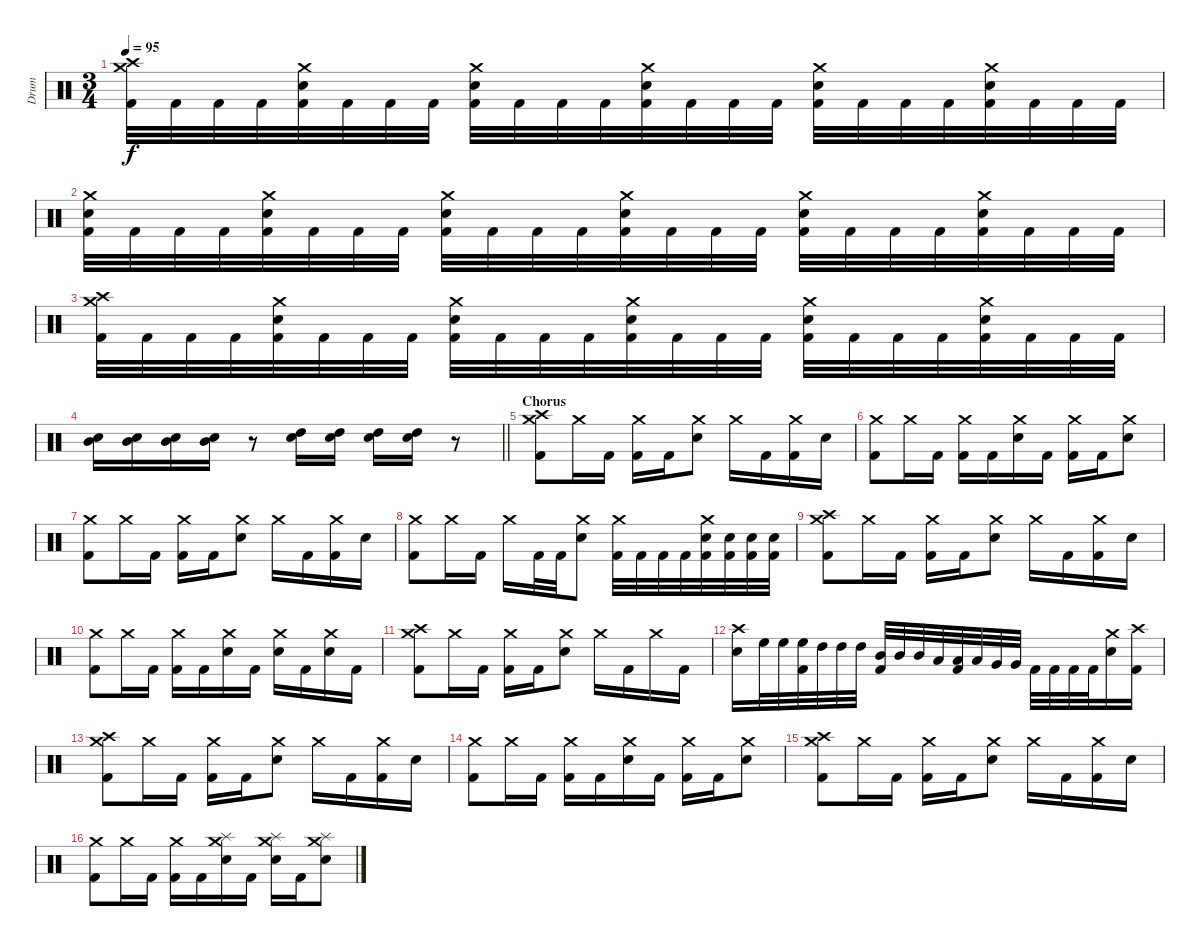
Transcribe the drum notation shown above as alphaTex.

\track ("Drum" "Drum") {instrument percussion}
\staff {score}
\articulation defaults
\ts (3 4)
\tempo 95
\clef neutral
\ks c
("Crash medium (hit)" "Crash high (hit)" "Kick (hit) 2").32{dy f} "Kick (hit) 2".32 "Kick (hit) 2".32 "Kick (hit) 2".32 ("Crash medium (hit)" "Electric Snare (hit)" "Kick (hit) 2").32 "Kick (hit) 2".32 "Kick (hit) 2".32 "Kick (hit) 2".32 ("Crash medium (hit)" "Electric Snare (hit)" "Kick (hit) 2").32 "Kick (hit) 2".32 "Kick (hit) 2".32 "Kick (hit) 2".32 ("Crash medium (hit)" "Electric Snare (hit)" "Kick (hit) 2").32 "Kick (hit) 2".32 "Kick (hit) 2".32 "Kick (hit) 2".32 ("Crash medium (hit)" "Electric Snare (hit)" "Kick (hit) 2").32 "Kick (hit) 2".32 "Kick (hit) 2".32 "Kick (hit) 2".32 ("Crash medium (hit)" "Electric Snare (hit)" "Kick (hit) 2").32 "Kick (hit) 2".32 "Kick (hit) 2".32 "Kick (hit) 2".32 |
("Crash medium (hit)" "Electric Snare (hit)" "Kick (hit) 2").32 "Kick (hit) 2".32 "Kick (hit) 2".32 "Kick (hit) 2".32 ("Crash medium (hit)" "Electric Snare (hit)" "Kick (hit) 2").32 "Kick (hit) 2".32 "Kick (hit) 2".32 "Kick (hit) 2".32 ("Crash medium (hit)" "Electric Snare (hit)" "Kick (hit) 2").32 "Kick (hit) 2".32 "Kick (hit) 2".32 "Kick (hit) 2".32 ("Crash medium (hit)" "Electric Snare (hit)" "Kick (hit) 2").32 "Kick (hit) 2".32 "Kick (hit) 2".32 "Kick (hit) 2".32 ("Crash medium (hit)" "Electric Snare (hit)" "Kick (hit) 2").32 "Kick (hit) 2".32 "Kick (hit) 2".32 "Kick (hit) 2".32 ("Crash medium (hit)" "Electric Snare (hit)" "Kick (hit) 2").32 "Kick (hit) 2".32 "Kick (hit) 2".32 "Kick (hit) 2".32 |
("Crash medium (hit)" "Crash high (hit)" "Kick (hit) 2").32 "Kick (hit) 2".32 "Kick (hit) 2".32 "Kick (hit) 2".32 ("Crash medium (hit)" "Electric Snare (hit)" "Kick (hit) 2").32 "Kick (hit) 2".32 "Kick (hit) 2".32 "Kick (hit) 2".32 ("Crash medium (hit)" "Electric Snare (hit)" "Kick (hit) 2").32 "Kick (hit) 2".32 "Kick (hit) 2".32 "Kick (hit) 2".32 ("Crash medium (hit)" "Electric Snare (hit)" "Kick (hit) 2").32 "Kick (hit) 2".32 "Kick (hit) 2".32 "Kick (hit) 2".32 ("Crash medium (hit)" "Electric Snare (hit)" "Kick (hit) 2").32 "Kick (hit) 2".32 "Kick (hit) 2".32 "Kick (hit) 2".32 ("Crash medium (hit)" "Electric Snare (hit)" "Kick (hit) 2").32 "Kick (hit) 2".32 "Kick (hit) 2".32 "Kick (hit) 2".32 |
\barLineRight lightlight
("Electric Snare (hit)" "Mid Tom (hit)").16 ("Electric Snare (hit)" "Mid Tom (hit)").16 ("Electric Snare (hit)" "Mid Tom (hit)").16 ("Electric Snare (hit)" "Mid Tom (hit)").16 r.8 ("Electric Snare (hit)" "High Tom (hit)").16 ("Electric Snare (hit)" "High Tom (hit)").16 ("Electric Snare (hit)" "High Tom (hit)").16 ("Electric Snare (hit)" "High Tom (hit)").16 r.8 |
\section ("" "Chorus")
("Crash medium (hit)" "Crash high (hit)" "Kick (hit) 2").8 "Crash medium (hit)".16 "Kick (hit) 2".16 ("Crash medium (hit)" "Kick (hit) 2").16 "Kick (hit) 2".16 ("Crash medium (hit)" "Electric Snare (hit)").8 "Crash medium (hit)".16 "Kick (hit) 2".16 ("Crash medium (hit)" "Kick (hit) 2").16 "Electric Snare (hit)".16 |
("Crash medium (hit)" "Kick (hit) 2").8 "Crash medium (hit)".16 "Kick (hit) 2".16 ("Crash medium (hit)" "Kick (hit) 2").16 "Kick (hit) 2".16 ("Crash medium (hit)" "Electric Snare (hit)").16 "Kick (hit) 2".16 ("Crash medium (hit)" "Kick (hit) 2").16 "Kick (hit) 2".16 ("Crash medium (hit)" "Electric Snare (hit)").8 |
("Crash medium (hit)" "Kick (hit) 2").8 "Crash medium (hit)".16 "Kick (hit) 2".16 ("Crash medium (hit)" "Kick (hit) 2").16 "Kick (hit) 2".16 ("Crash medium (hit)" "Electric Snare (hit)").8 "Crash medium (hit)".16 "Kick (hit) 2".16 ("Crash medium (hit)" "Kick (hit) 2").16 "Electric Snare (hit)".16 |
("Crash medium (hit)" "Kick (hit) 2").8 "Crash medium (hit)".16 "Kick (hit) 2".16 "Crash medium (hit)".16 "Kick (hit) 2".32 "Kick (hit) 2".32 ("Crash medium (hit)" "Electric Snare (hit)").8 ("Crash medium (hit)" "Kick (hit) 2").32 "Kick (hit) 2".32 "Kick (hit) 2".32 "Kick (hit) 2".32 ("Crash medium (hit)" "Electric Snare (hit)" "Kick (hit) 2").32 ("Electric Snare (hit)" "Kick (hit) 2").32 ("Electric Snare (hit)" "Kick (hit) 2").32 ("Electric Snare (hit)" "Kick (hit) 2").32 |
("Crash medium (hit)" "Crash high (hit)" "Kick (hit) 2").8 "Crash medium (hit)".16 "Kick (hit) 2".16 ("Crash medium (hit)" "Kick (hit) 2").16 "Kick (hit) 2".16 ("Crash medium (hit)" "Electric Snare (hit)").8 "Crash medium (hit)".16 "Kick (hit) 2".16 ("Crash medium (hit)" "Kick (hit) 2").16 "Electric Snare (hit)".16 |
("Crash medium (hit)" "Kick (hit) 2").8 "Crash medium (hit)".16 "Kick (hit) 2".16 ("Crash medium (hit)" "Kick (hit) 2").16 "Kick (hit) 2".16 ("Crash medium (hit)" "Electric Snare (hit)").16 "Kick (hit) 2".16 ("Crash medium (hit)" "Electric Snare (hit)").16 "Kick (hit) 2".16 ("Crash medium (hit)" "Electric Snare (hit)").16 "Kick (hit) 2".16 |
("Crash high (hit)" "Crash medium (hit)" "Kick (hit) 2").8 "Crash medium (hit)".16 "Kick (hit) 2".16 ("Crash medium (hit)" "Kick (hit) 2").16 "Kick (hit) 2".16 ("Crash medium (hit)" "Electric Snare (hit)").8 "Crash medium (hit)".16 "Kick (hit) 2".16 "Crash medium (hit)".16 "Kick (hit) 2".16 |
("Crash high (hit)" "Electric Snare (hit)").16 "High Floor Tom (hit)".32 "High Floor Tom (hit)".32 ("High Floor Tom (hit)" "Kick (hit) 2").32 "High Tom (hit)".32 "High Tom (hit)".32 "High Tom (hit)".32 ("Mid Tom (hit)" "Kick (hit) 2").32 "Mid Tom (hit)".32 "Mid Tom (hit)".32 "Low Tom (hit)".32 ("Low Tom (hit)" "Kick (hit) 2").32 "Low Tom (hit)".32 "Very Low Tom (hit)".32 "Very Low Tom (hit)".32 "Kick (hit) 2".32 "Kick (hit) 2".32 "Kick (hit) 2".32 "Kick (hit) 2".32 ("Crash medium (hit)" "Electric Snare (hit)").16 ("Crash high (hit)" "Kick (hit) 2").16 |
("Crash medium (hit)" "Crash high (hit)" "Kick (hit) 2").8 "Crash medium (hit)".16 "Kick (hit) 2".16 ("Crash medium (hit)" "Kick (hit) 2").16 "Kick (hit) 2".16 ("Crash medium (hit)" "Electric Snare (hit)").8 "Crash medium (hit)".16 "Kick (hit) 2".16 ("Crash medium (hit)" "Kick (hit) 2").16 "Electric Snare (hit)".16 |
("Crash medium (hit)" "Kick (hit) 2").8 "Crash medium (hit)".16 "Kick (hit) 2".16 ("Crash medium (hit)" "Kick (hit) 2").16 "Kick (hit) 2".16 ("Crash medium (hit)" "Electric Snare (hit)").16 "Kick (hit) 2".16 ("Crash medium (hit)" "Kick (hit) 2").16 "Kick (hit) 2".16 ("Crash medium (hit)" "Electric Snare (hit)").8 |
("Crash high (hit)" "Crash medium (hit)" "Kick (hit) 2").8 "Crash medium (hit)".16 "Kick (hit) 2".16 ("Crash medium (hit)" "Kick (hit) 2").16 "Kick (hit) 2".16 ("Crash medium (hit)" "Electric Snare (hit)").8 "Crash medium (hit)".16 "Kick (hit) 2".16 ("Crash medium (hit)" "Kick (hit) 2").16 "Electric Snare (hit)".16 |
("Crash medium (hit)" "Kick (hit) 2").8 "Crash medium (hit)".16 "Kick (hit) 2".16 ("Crash medium (hit)" "Kick (hit) 2").16 "Kick (hit) 2".16 ("Splash (hit)" "Crash medium (hit)" "Electric Snare (hit)").16 "Kick (hit) 2".16 ("Splash (hit)" "Crash medium (hit)" "Electric Snare (hit)").16 "Kick (hit) 2".16 ("Splash (hit)" "Crash medium (hit)" "Electric Snare (hit)").8
